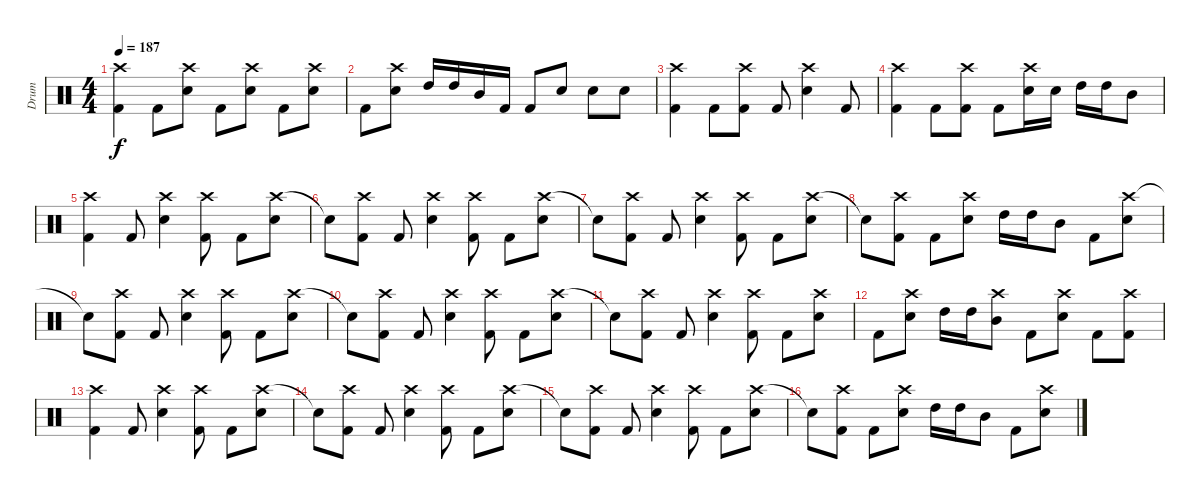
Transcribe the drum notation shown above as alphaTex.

\track ("Drum" "Drum") {instrument percussion}
\staff {score}
\articulation defaults
\ts (4 4)
\tempo 187
\clef neutral
\ks c
("Crash high (hit)" "Kick (hit) 2").4{dy f} "Kick (hit) 2".8 ("Crash high (hit)" "Electric Snare (hit)").8 "Kick (hit) 2".8 ("Crash high (hit)" "Electric Snare (hit)").8 "Kick (hit) 2".8 ("Crash high (hit)" "Electric Snare (hit)").8 |
"Kick (hit) 2".8 ("Crash high (hit)" "Electric Snare (hit)").8 "High Tom (hit)".16 "High Tom (hit)".16 "Mid Tom (hit)".16 "Kick (hit) 2".16 "Kick (hit) 2".8 "Electric Snare (hit)".8 "Electric Snare (hit)".8 "Electric Snare (hit)".8 |
("Crash high (hit)" "Kick (hit) 2").4 "Kick (hit) 2".8 ("Crash high (hit)" "Kick (hit) 2").8 "Kick (hit) 2".8 ("Crash high (hit)" "Electric Snare (hit)").4 "Kick (hit) 2".8 |
("Crash high (hit)" "Kick (hit) 2").4 "Kick (hit) 2".8 ("Crash high (hit)" "Kick (hit) 2").8 "Kick (hit) 2".8 ("Crash high (hit)" "Electric Snare (hit)").16 "Electric Snare (hit)".16 "High Tom (hit)".16 "High Tom (hit)".16 "Mid Tom (hit)".8 |
("Crash high (hit)" "Kick (hit) 2").4 "Kick (hit) 2".8 ("Crash high (hit)" "Electric Snare (hit)").4 ("Crash high (hit)" "Kick (hit) 2").8 "Kick (hit) 2".8 ("Crash high (hit)" "Electric Snare (hit)").8 |
"Snare (hit)"{t}.8 ("Crash high (hit)" "Kick (hit) 2").8 "Kick (hit) 2".8 ("Crash high (hit)" "Electric Snare (hit)").4 ("Crash high (hit)" "Kick (hit) 2").8 "Kick (hit) 2".8 ("Crash high (hit)" "Electric Snare (hit)").8 |
"Snare (hit)"{t}.8 ("Crash high (hit)" "Kick (hit) 2").8 "Kick (hit) 2".8 ("Crash high (hit)" "Electric Snare (hit)").4 ("Crash high (hit)" "Kick (hit) 2").8 "Kick (hit) 2".8 ("Crash high (hit)" "Electric Snare (hit)").8 |
"Snare (hit)"{t}.8 ("Crash high (hit)" "Kick (hit) 2").8 "Kick (hit) 2".8 ("Crash high (hit)" "Electric Snare (hit)").8 "High Tom (hit)".16 "High Tom (hit)".16 "Mid Tom (hit)".8 "Kick (hit) 2".8 ("Crash high (hit)" "Electric Snare (hit)").8 |
"Snare (hit)"{t}.8 ("Crash high (hit)" "Kick (hit) 2").8 "Kick (hit) 2".8 ("Crash high (hit)" "Electric Snare (hit)").4 ("Crash high (hit)" "Kick (hit) 2").8 "Kick (hit) 2".8 ("Crash high (hit)" "Electric Snare (hit)").8 |
"Snare (hit)"{t}.8 ("Crash high (hit)" "Kick (hit) 2").8 "Kick (hit) 2".8 ("Crash high (hit)" "Electric Snare (hit)").4 ("Crash high (hit)" "Kick (hit) 2").8 "Kick (hit) 2".8 ("Crash high (hit)" "Electric Snare (hit)").8 |
"Snare (hit)"{t}.8 ("Crash high (hit)" "Kick (hit) 2").8 "Kick (hit) 2".8 ("Crash high (hit)" "Electric Snare (hit)").4 ("Crash high (hit)" "Kick (hit) 2").8 "Kick (hit) 2".8 ("Crash high (hit)" "Electric Snare (hit)").8 |
"Kick (hit) 2".8 ("Crash high (hit)" "Electric Snare (hit)").8 "High Tom (hit)".16 "High Tom (hit)".16 ("Crash high (hit)" "Mid Tom (hit)").8 "Kick (hit) 2".8 ("Crash high (hit)" "Electric Snare (hit)").8 "Kick (hit) 2".8 ("Crash high (hit)" "Kick (hit) 2").8 |
("Crash high (hit)" "Kick (hit) 2").4 "Kick (hit) 2".8 ("Crash high (hit)" "Electric Snare (hit)").4 ("Crash high (hit)" "Kick (hit) 2").8 "Kick (hit) 2".8 ("Crash high (hit)" "Electric Snare (hit)").8 |
"Snare (hit)"{t}.8 ("Crash high (hit)" "Kick (hit) 2").8 "Kick (hit) 2".8 ("Crash high (hit)" "Electric Snare (hit)").4 ("Crash high (hit)" "Kick (hit) 2").8 "Kick (hit) 2".8 ("Crash high (hit)" "Electric Snare (hit)").8 |
"Snare (hit)"{t}.8 ("Crash high (hit)" "Kick (hit) 2").8 "Kick (hit) 2".8 ("Crash high (hit)" "Electric Snare (hit)").4 ("Crash high (hit)" "Kick (hit) 2").8 "Kick (hit) 2".8 ("Crash high (hit)" "Electric Snare (hit)").8 |
"Snare (hit)"{t}.8 ("Crash high (hit)" "Kick (hit) 2").8 "Kick (hit) 2".8 ("Crash high (hit)" "Electric Snare (hit)").8 "High Tom (hit)".16 "High Tom (hit)".16 "Mid Tom (hit)".8 "Kick (hit) 2".8 ("Crash high (hit)" "Electric Snare (hit)").8
